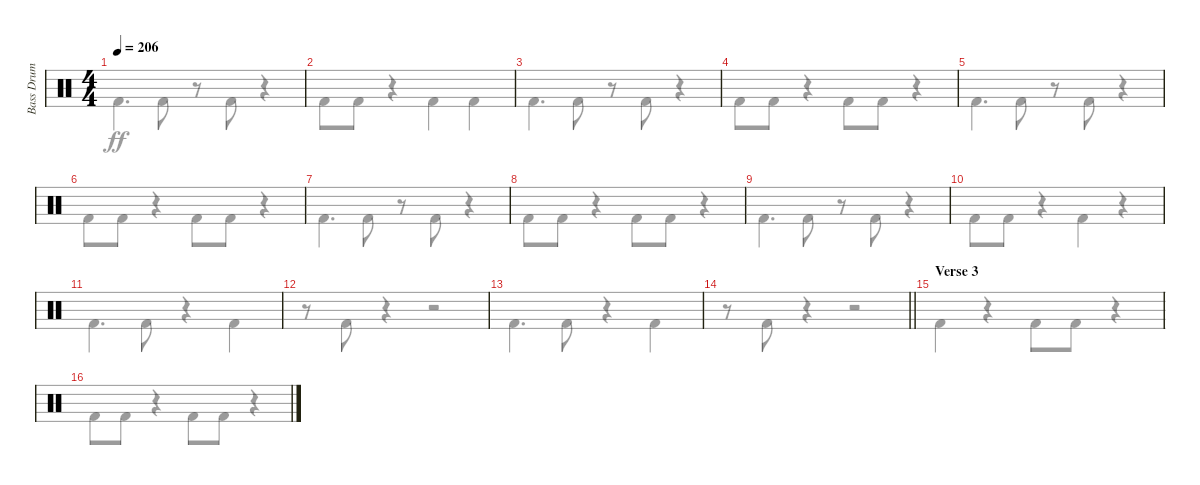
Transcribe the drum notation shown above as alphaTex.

\track ("Bass Drum" "Bass Drum") {instrument percussion}
\staff {score}
\articulation defaults
\voice
\ts (4 4)
\tempo 206
\clef neutral
\ks c
|
|
|
|
|
|
|
|
|
|
|
|
|
\barLineRight lightlight
|
\section ("" "Verse 3")
|
\voice
\clef neutral
\ks c "Kick (hit) 2".4{d dy ff} "Kick (hit) 2".8
r.8 "Kick (hit) 2".8 r.4 |
"Kick (hit) 2".8 "Kick (hit) 2".8 r.4 "Kick (hit) 2".4 "Kick (hit) 2".4 |
"Kick (hit) 2".4{d} "Kick (hit) 2".8 r.8 "Kick (hit) 2".8 r.4 |
"Kick (hit) 2".8 "Kick (hit) 2".8 r.4 "Kick (hit) 2".8 "Kick (hit) 2".8 r.4 |
"Kick (hit) 2".4{d} "Kick (hit) 2".8 r.8 "Kick (hit) 2".8 r.4 |
"Kick (hit) 2".8 "Kick (hit) 2".8 r.4 "Kick (hit) 2".8 "Kick (hit) 2".8 r.4 |
"Kick (hit) 2".4{d} "Kick (hit) 2".8 r.8 "Kick (hit) 2".8 r.4 |
"Kick (hit) 2".8 "Kick (hit) 2".8 r.4 "Kick (hit) 2".8 "Kick (hit) 2".8 r.4 |
"Kick (hit) 2".4{d} "Kick (hit) 2".8 r.8 "Kick (hit) 2".8 r.4 |
"Kick (hit) 2".8 "Kick (hit) 2".8 r.4 "Kick (hit) 2".4 r.4 |
"Kick (hit) 2".4{d} "Kick (hit) 2".8 r.4 "Kick (hit) 2".4 |
r.8 "Kick (hit) 2".8 r.4 r.2 |
"Kick (hit) 2".4{d} "Kick (hit) 2".8 r.4 "Kick (hit) 2".4 |
\barLineRight lightlight
r.8 "Kick (hit) 2".8 r.4 r.2 |
"Kick (hit) 2".4 r.4 "Kick (hit) 2".8 "Kick (hit) 2".8 r.4 |
"Kick (hit) 2".8 "Kick (hit) 2".8 r.4 "Kick (hit) 2".8 "Kick (hit) 2".8 r.4
